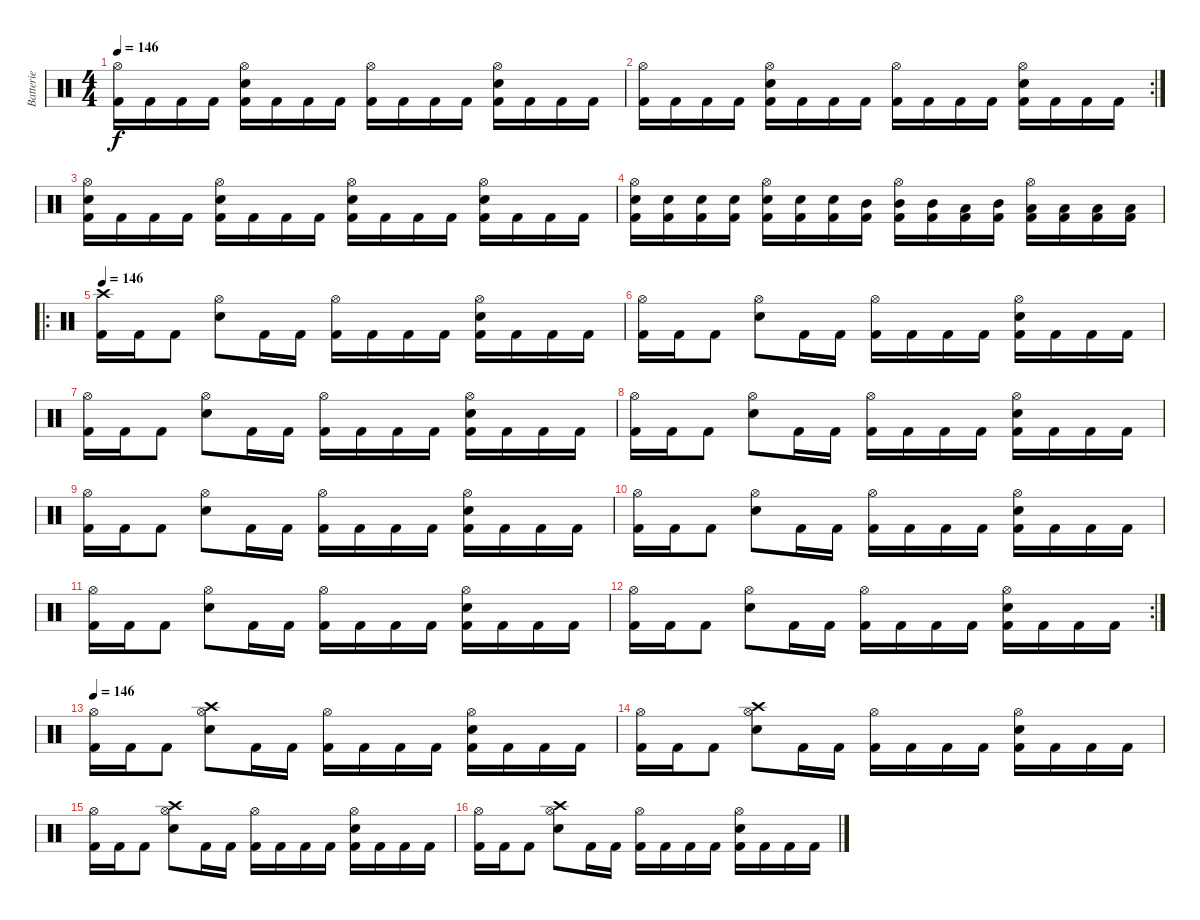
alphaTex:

\track ("Batterie" "Batterie") {instrument percussion}
\staff {score}
\articulation defaults
\ts (4 4)
\tempo 146
\clef neutral
\ks c
("Hi-Hat (open)" "Kick (hit) 2").16{dy f} "Kick (hit) 2".16 "Kick (hit) 2".16 "Kick (hit) 2".16 ("Hi-Hat (open)" "Electric Snare (hit)" "Kick (hit) 2").16 "Kick (hit) 2".16 "Kick (hit) 2".16 "Kick (hit) 2".16 ("Hi-Hat (open)" "Kick (hit) 2").16 "Kick (hit) 2".16 "Kick (hit) 2".16 "Kick (hit) 2".16 ("Hi-Hat (open)" "Electric Snare (hit)" "Kick (hit) 2").16 "Kick (hit) 2".16 "Kick (hit) 2".16 "Kick (hit) 2".16 |
\rc 2
("Hi-Hat (open)" "Kick (hit) 2").16 "Kick (hit) 2".16 "Kick (hit) 2".16 "Kick (hit) 2".16 ("Hi-Hat (open)" "Electric Snare (hit)" "Kick (hit) 2").16 "Kick (hit) 2".16 "Kick (hit) 2".16 "Kick (hit) 2".16 ("Hi-Hat (open)" "Kick (hit) 2").16 "Kick (hit) 2".16 "Kick (hit) 2".16 "Kick (hit) 2".16 ("Hi-Hat (open)" "Electric Snare (hit)" "Kick (hit) 2").16 "Kick (hit) 2".16 "Kick (hit) 2".16 "Kick (hit) 2".16 |
("Electric Snare (hit)" "Hi-Hat (open)" "Kick (hit) 2").16 "Kick (hit) 2".16 "Kick (hit) 2".16 "Kick (hit) 2".16 ("Hi-Hat (open)" "Electric Snare (hit)" "Kick (hit) 2").16 "Kick (hit) 2".16 "Kick (hit) 2".16 "Kick (hit) 2".16 ("Electric Snare (hit)" "Hi-Hat (open)" "Kick (hit) 2").16 "Kick (hit) 2".16 "Kick (hit) 2".16 "Kick (hit) 2".16 ("Hi-Hat (open)" "Electric Snare (hit)" "Kick (hit) 2").16 "Kick (hit) 2".16 "Kick (hit) 2".16 "Kick (hit) 2".16 |
("Electric Snare (hit)" "Hi-Hat (open)" "Kick (hit) 2").16 ("Electric Snare (hit)" "Kick (hit) 2").16 ("Electric Snare (hit)" "Kick (hit) 2").16 ("Electric Snare (hit)" "Kick (hit) 2").16 ("Hi-Hat (open)" "Electric Snare (hit)" "Kick (hit) 2").16 ("Electric Snare (hit)" "Kick (hit) 2").16 ("Electric Snare (hit)" "Kick (hit) 2").16 ("Mid Tom (hit)" "Kick (hit) 2").16 ("Mid Tom (hit)" "Hi-Hat (open)" "Kick (hit) 2").16 ("Mid Tom (hit)" "Kick (hit) 2").16 ("Low Tom (hit)" "Kick (hit) 2").16 ("Mid Tom (hit)" "Kick (hit) 2").16 ("Hi-Hat (open)" "Low Tom (hit)" "Kick (hit) 2").16 ("Low Tom (hit)" "Kick (hit) 2").16 ("Low Tom (hit)" "Kick (hit) 2").16 ("Low Tom (hit)" "Kick (hit) 2").16 |
\ro
\tempo 146
("Crash high (hit)" "Kick (hit) 2").16 "Kick (hit) 2".16 "Kick (hit) 2".8 ("Hi-Hat (open)" "Electric Snare (hit)").8 "Kick (hit) 2".16 "Kick (hit) 2".16 ("Hi-Hat (open)" "Kick (hit) 2").16 "Kick (hit) 2".16 "Kick (hit) 2".16 "Kick (hit) 2".16 ("Electric Snare (hit)" "Hi-Hat (open)" "Kick (hit) 2").16 "Kick (hit) 2".16 "Kick (hit) 2".16 "Kick (hit) 2".16 |
("Hi-Hat (open)" "Kick (hit) 2").16 "Kick (hit) 2".16 "Kick (hit) 2".8 ("Hi-Hat (open)" "Electric Snare (hit)").8 "Kick (hit) 2".16 "Kick (hit) 2".16 ("Hi-Hat (open)" "Kick (hit) 2").16 "Kick (hit) 2".16 "Kick (hit) 2".16 "Kick (hit) 2".16 ("Electric Snare (hit)" "Hi-Hat (open)" "Kick (hit) 2").16 "Kick (hit) 2".16 "Kick (hit) 2".16 "Kick (hit) 2".16 |
("Hi-Hat (open)" "Kick (hit) 2").16 "Kick (hit) 2".16 "Kick (hit) 2".8 ("Hi-Hat (open)" "Electric Snare (hit)").8 "Kick (hit) 2".16 "Kick (hit) 2".16 ("Hi-Hat (open)" "Kick (hit) 2").16 "Kick (hit) 2".16 "Kick (hit) 2".16 "Kick (hit) 2".16 ("Electric Snare (hit)" "Hi-Hat (open)" "Kick (hit) 2").16 "Kick (hit) 2".16 "Kick (hit) 2".16 "Kick (hit) 2".16 |
("Hi-Hat (open)" "Kick (hit) 2").16 "Kick (hit) 2".16 "Kick (hit) 2".8 ("Hi-Hat (open)" "Electric Snare (hit)").8 "Kick (hit) 2".16 "Kick (hit) 2".16 ("Hi-Hat (open)" "Kick (hit) 2").16 "Kick (hit) 2".16 "Kick (hit) 2".16 "Kick (hit) 2".16 ("Electric Snare (hit)" "Hi-Hat (open)" "Kick (hit) 2").16 "Kick (hit) 2".16 "Kick (hit) 2".16 "Kick (hit) 2".16 |
("Hi-Hat (open)" "Kick (hit) 2").16 "Kick (hit) 2".16 "Kick (hit) 2".8 ("Hi-Hat (open)" "Electric Snare (hit)").8 "Kick (hit) 2".16 "Kick (hit) 2".16 ("Hi-Hat (open)" "Kick (hit) 2").16 "Kick (hit) 2".16 "Kick (hit) 2".16 "Kick (hit) 2".16 ("Electric Snare (hit)" "Hi-Hat (open)" "Kick (hit) 2").16 "Kick (hit) 2".16 "Kick (hit) 2".16 "Kick (hit) 2".16 |
("Hi-Hat (open)" "Kick (hit) 2").16 "Kick (hit) 2".16 "Kick (hit) 2".8 ("Hi-Hat (open)" "Electric Snare (hit)").8 "Kick (hit) 2".16 "Kick (hit) 2".16 ("Hi-Hat (open)" "Kick (hit) 2").16 "Kick (hit) 2".16 "Kick (hit) 2".16 "Kick (hit) 2".16 ("Electric Snare (hit)" "Hi-Hat (open)" "Kick (hit) 2").16 "Kick (hit) 2".16 "Kick (hit) 2".16 "Kick (hit) 2".16 |
("Hi-Hat (open)" "Kick (hit) 2").16 "Kick (hit) 2".16 "Kick (hit) 2".8 ("Hi-Hat (open)" "Electric Snare (hit)").8 "Kick (hit) 2".16 "Kick (hit) 2".16 ("Hi-Hat (open)" "Kick (hit) 2").16 "Kick (hit) 2".16 "Kick (hit) 2".16 "Kick (hit) 2".16 ("Electric Snare (hit)" "Hi-Hat (open)" "Kick (hit) 2").16 "Kick (hit) 2".16 "Kick (hit) 2".16 "Kick (hit) 2".16 |
\rc 2
("Hi-Hat (open)" "Kick (hit) 2").16 "Kick (hit) 2".16 "Kick (hit) 2".8 ("Hi-Hat (open)" "Electric Snare (hit)").8 "Kick (hit) 2".16 "Kick (hit) 2".16 ("Hi-Hat (open)" "Kick (hit) 2").16 "Kick (hit) 2".16 "Kick (hit) 2".16 "Kick (hit) 2".16 ("Electric Snare (hit)" "Hi-Hat (open)" "Kick (hit) 2").16 "Kick (hit) 2".16 "Kick (hit) 2".16 "Kick (hit) 2".16 |
\tempo 146
("Hi-Hat (open)" "Kick (hit) 2").16 "Kick (hit) 2".16 "Kick (hit) 2".8 ("Crash high (hit)" "Hi-Hat (open)" "Electric Snare (hit)").8 "Kick (hit) 2".16 "Kick (hit) 2".16 ("Hi-Hat (open)" "Kick (hit) 2").16 "Kick (hit) 2".16 "Kick (hit) 2".16 "Kick (hit) 2".16 ("Electric Snare (hit)" "Hi-Hat (open)" "Kick (hit) 2").16 "Kick (hit) 2".16 "Kick (hit) 2".16 "Kick (hit) 2".16 |
("Hi-Hat (open)" "Kick (hit) 2").16 "Kick (hit) 2".16 "Kick (hit) 2".8 ("Crash high (hit)" "Hi-Hat (open)" "Electric Snare (hit)").8 "Kick (hit) 2".16 "Kick (hit) 2".16 ("Hi-Hat (open)" "Kick (hit) 2").16 "Kick (hit) 2".16 "Kick (hit) 2".16 "Kick (hit) 2".16 ("Electric Snare (hit)" "Hi-Hat (open)" "Kick (hit) 2").16 "Kick (hit) 2".16 "Kick (hit) 2".16 "Kick (hit) 2".16 |
("Hi-Hat (open)" "Kick (hit) 2").16 "Kick (hit) 2".16 "Kick (hit) 2".8 ("Crash high (hit)" "Hi-Hat (open)" "Electric Snare (hit)").8 "Kick (hit) 2".16 "Kick (hit) 2".16 ("Hi-Hat (open)" "Kick (hit) 2").16 "Kick (hit) 2".16 "Kick (hit) 2".16 "Kick (hit) 2".16 ("Electric Snare (hit)" "Hi-Hat (open)" "Kick (hit) 2").16 "Kick (hit) 2".16 "Kick (hit) 2".16 "Kick (hit) 2".16 |
("Hi-Hat (open)" "Kick (hit) 2").16 "Kick (hit) 2".16 "Kick (hit) 2".8 ("Crash high (hit)" "Hi-Hat (open)" "Electric Snare (hit)").8 "Kick (hit) 2".16 "Kick (hit) 2".16 ("Hi-Hat (open)" "Kick (hit) 2").16 "Kick (hit) 2".16 "Kick (hit) 2".16 "Kick (hit) 2".16 ("Electric Snare (hit)" "Hi-Hat (open)" "Kick (hit) 2").16 "Kick (hit) 2".16 "Kick (hit) 2".16 "Kick (hit) 2".16
